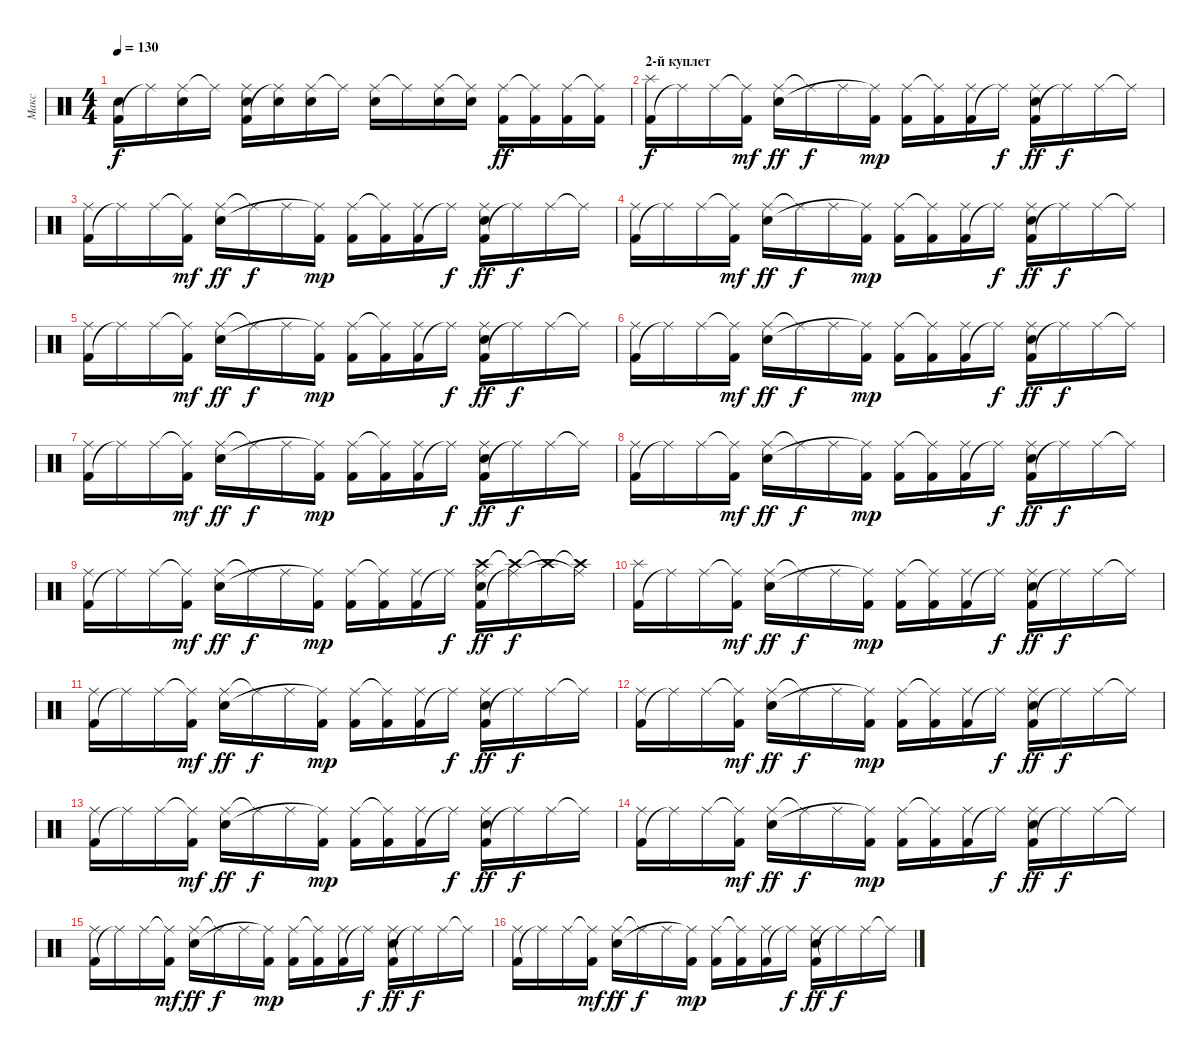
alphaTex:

\track ("Макс" "Макс") {instrument percussion}
\staff {score}
\articulation defaults
\ts (4 4)
\tempo 130
\clef neutral
\ks c
("Kick (hit) 2" "Electric Snare (hit)").16{dy f} "Ride (middle)"{t}.16 ("Ride (middle)" "Electric Snare (hit)").16 "Ride (middle)"{t}.16 ("Kick (hit) 2" "Ride (middle)" "Electric Snare (hit)").16 ("Ride (middle)"{t} "Electric Snare (hit)").16 ("Ride (middle)" "Electric Snare (hit)").16 "Ride (middle)"{t}.16 ("Ride (middle)" "Electric Snare (hit)").16 "Ride (middle)"{t}.16 ("Ride (middle)" "Electric Snare (hit)").16 ("Ride (middle)"{t} "Electric Snare (hit)").16 ("Ride (middle)" "Kick (hit) 2").16{dy ff} ("Ride (middle)"{t} "Kick (hit) 2").16 ("Ride (middle)" "Kick (hit) 2").16 ("Ride (middle)"{t} "Kick (hit) 2").16 |
\section ("" "2-й куплет")
("Kick (hit) 2" "Splash (hit)").16{dy f} "Ride (middle)"{t}.16 "Ride (middle)".16 ("Ride (middle)"{t} "Kick (hit) 2").16{dy mf} ("Ride (middle)" "Electric Snare (hit)").16{dy ff} "Ride (middle)"{t}.16{dy f} "Ride (middle)".16 ("Kick (hit) 2" "Ride (middle)"{t}).16{dy mp} ("Kick (hit) 2" "Ride (middle)").16 ("Kick (hit) 2" "Ride (middle)"{t}).16 ("Kick (hit) 2" "Ride (middle)").16 "Ride (middle)"{t}.16{dy f} ("Kick (hit) 2" "Ride (middle)" "Electric Snare (hit)").16{dy ff} "Ride (middle)"{t}.16{dy f} "Ride (middle)".16 "Ride (middle)"{t}.16 |
("Kick (hit) 2" "Ride (middle)").16 "Ride (middle)"{t}.16 "Ride (middle)".16 ("Ride (middle)"{t} "Kick (hit) 2").16{dy mf} ("Ride (middle)" "Electric Snare (hit)").16{dy ff} "Ride (middle)"{t}.16{dy f} "Ride (middle)".16 ("Kick (hit) 2" "Ride (middle)"{t}).16{dy mp} ("Kick (hit) 2" "Ride (middle)").16 ("Kick (hit) 2" "Ride (middle)"{t}).16 ("Kick (hit) 2" "Ride (middle)").16 "Ride (middle)"{t}.16{dy f} ("Kick (hit) 2" "Ride (middle)" "Electric Snare (hit)").16{dy ff} "Ride (middle)"{t}.16{dy f} "Ride (middle)".16 "Ride (middle)"{t}.16 |
("Kick (hit) 2" "Ride (middle)").16 "Ride (middle)"{t}.16 "Ride (middle)".16 ("Ride (middle)"{t} "Kick (hit) 2").16{dy mf} ("Ride (middle)" "Electric Snare (hit)").16{dy ff} "Ride (middle)"{t}.16{dy f} "Ride (middle)".16 ("Kick (hit) 2" "Ride (middle)"{t}).16{dy mp} ("Kick (hit) 2" "Ride (middle)").16 ("Kick (hit) 2" "Ride (middle)"{t}).16 ("Kick (hit) 2" "Ride (middle)").16 "Ride (middle)"{t}.16{dy f} ("Kick (hit) 2" "Ride (middle)" "Electric Snare (hit)").16{dy ff} "Ride (middle)"{t}.16{dy f} "Ride (middle)".16 "Ride (middle)"{t}.16 |
("Kick (hit) 2" "Ride (middle)").16 "Ride (middle)"{t}.16 "Ride (middle)".16 ("Ride (middle)"{t} "Kick (hit) 2").16{dy mf} ("Ride (middle)" "Electric Snare (hit)").16{dy ff} "Ride (middle)"{t}.16{dy f} "Ride (middle)".16 ("Kick (hit) 2" "Ride (middle)"{t}).16{dy mp} ("Kick (hit) 2" "Ride (middle)").16 ("Kick (hit) 2" "Ride (middle)"{t}).16 ("Kick (hit) 2" "Ride (middle)").16 "Ride (middle)"{t}.16{dy f} ("Kick (hit) 2" "Ride (middle)" "Electric Snare (hit)").16{dy ff} "Ride (middle)"{t}.16{dy f} "Ride (middle)".16 "Ride (middle)"{t}.16 |
("Kick (hit) 2" "Ride (middle)").16 "Ride (middle)"{t}.16 "Ride (middle)".16 ("Ride (middle)"{t} "Kick (hit) 2").16{dy mf} ("Ride (middle)" "Electric Snare (hit)").16{dy ff} "Ride (middle)"{t}.16{dy f} "Ride (middle)".16 ("Kick (hit) 2" "Ride (middle)"{t}).16{dy mp} ("Kick (hit) 2" "Ride (middle)").16 ("Kick (hit) 2" "Ride (middle)"{t}).16 ("Kick (hit) 2" "Ride (middle)").16 "Ride (middle)"{t}.16{dy f} ("Kick (hit) 2" "Ride (middle)" "Electric Snare (hit)").16{dy ff} "Ride (middle)"{t}.16{dy f} "Ride (middle)".16 "Ride (middle)"{t}.16 |
("Kick (hit) 2" "Ride (middle)").16 "Ride (middle)"{t}.16 "Ride (middle)".16 ("Ride (middle)"{t} "Kick (hit) 2").16{dy mf} ("Ride (middle)" "Electric Snare (hit)").16{dy ff} "Ride (middle)"{t}.16{dy f} "Ride (middle)".16 ("Kick (hit) 2" "Ride (middle)"{t}).16{dy mp} ("Kick (hit) 2" "Ride (middle)").16 ("Kick (hit) 2" "Ride (middle)"{t}).16 ("Kick (hit) 2" "Ride (middle)").16 "Ride (middle)"{t}.16{dy f} ("Kick (hit) 2" "Ride (middle)" "Electric Snare (hit)").16{dy ff} "Ride (middle)"{t}.16{dy f} "Ride (middle)".16 "Ride (middle)"{t}.16 |
("Kick (hit) 2" "Ride (middle)").16 "Ride (middle)"{t}.16 "Ride (middle)".16 ("Ride (middle)"{t} "Kick (hit) 2").16{dy mf} ("Ride (middle)" "Electric Snare (hit)").16{dy ff} "Ride (middle)"{t}.16{dy f} "Ride (middle)".16 ("Kick (hit) 2" "Ride (middle)"{t}).16{dy mp} ("Kick (hit) 2" "Ride (middle)").16 ("Kick (hit) 2" "Ride (middle)"{t}).16 ("Kick (hit) 2" "Ride (middle)").16 "Ride (middle)"{t}.16{dy f} ("Kick (hit) 2" "Ride (middle)" "Electric Snare (hit)").16{dy ff} "Ride (middle)"{t}.16{dy f} "Ride (middle)".16 "Ride (middle)"{t}.16 |
("Kick (hit) 2" "Ride (middle)").16 "Ride (middle)"{t}.16 "Ride (middle)".16 ("Ride (middle)"{t} "Kick (hit) 2").16{dy mf} ("Ride (middle)" "Electric Snare (hit)").16{dy ff} "Ride (middle)"{t}.16{dy f} "Ride (middle)".16 ("Kick (hit) 2" "Ride (middle)"{t}).16{dy mp} ("Kick (hit) 2" "Ride (middle)").16 ("Kick (hit) 2" "Ride (middle)"{t}).16 ("Kick (hit) 2" "Ride (middle)").16 "Ride (middle)"{t}.16{dy f} ("Crash high (hit)" "Kick (hit) 2" "Ride (middle)" "Electric Snare (hit)").16{dy ff} ("Crash high (hit)"{t} "Ride (middle)"{t}).16{dy f} "Crash high (hit)"{t}.16 ("Crash high (hit)"{t} "Ride (middle)"{t}).16 |
("Kick (hit) 2" "Splash (hit)").16 "Ride (middle)"{t}.16 "Ride (middle)".16 ("Ride (middle)"{t} "Kick (hit) 2").16{dy mf} ("Ride (middle)" "Electric Snare (hit)").16{dy ff} "Ride (middle)"{t}.16{dy f} "Ride (middle)".16 ("Kick (hit) 2" "Ride (middle)"{t}).16{dy mp} ("Kick (hit) 2" "Ride (middle)").16 ("Kick (hit) 2" "Ride (middle)"{t}).16 ("Kick (hit) 2" "Ride (middle)").16 "Ride (middle)"{t}.16{dy f} ("Kick (hit) 2" "Ride (middle)" "Electric Snare (hit)").16{dy ff} "Ride (middle)"{t}.16{dy f} "Ride (middle)".16 "Ride (middle)"{t}.16 |
("Kick (hit) 2" "Ride (middle)").16 "Ride (middle)"{t}.16 "Ride (middle)".16 ("Ride (middle)"{t} "Kick (hit) 2").16{dy mf} ("Ride (middle)" "Electric Snare (hit)").16{dy ff} "Ride (middle)"{t}.16{dy f} "Ride (middle)".16 ("Kick (hit) 2" "Ride (middle)"{t}).16{dy mp} ("Kick (hit) 2" "Ride (middle)").16 ("Kick (hit) 2" "Ride (middle)"{t}).16 ("Kick (hit) 2" "Ride (middle)").16 "Ride (middle)"{t}.16{dy f} ("Kick (hit) 2" "Ride (middle)" "Electric Snare (hit)").16{dy ff} "Ride (middle)"{t}.16{dy f} "Ride (middle)".16 "Ride (middle)"{t}.16 |
("Kick (hit) 2" "Ride (middle)").16 "Ride (middle)"{t}.16 "Ride (middle)".16 ("Ride (middle)"{t} "Kick (hit) 2").16{dy mf} ("Ride (middle)" "Electric Snare (hit)").16{dy ff} "Ride (middle)"{t}.16{dy f} "Ride (middle)".16 ("Kick (hit) 2" "Ride (middle)"{t}).16{dy mp} ("Kick (hit) 2" "Ride (middle)").16 ("Kick (hit) 2" "Ride (middle)"{t}).16 ("Kick (hit) 2" "Ride (middle)").16 "Ride (middle)"{t}.16{dy f} ("Kick (hit) 2" "Ride (middle)" "Electric Snare (hit)").16{dy ff} "Ride (middle)"{t}.16{dy f} "Ride (middle)".16 "Ride (middle)"{t}.16 |
("Kick (hit) 2" "Ride (middle)").16 "Ride (middle)"{t}.16 "Ride (middle)".16 ("Ride (middle)"{t} "Kick (hit) 2").16{dy mf} ("Ride (middle)" "Electric Snare (hit)").16{dy ff} "Ride (middle)"{t}.16{dy f} "Ride (middle)".16 ("Kick (hit) 2" "Ride (middle)"{t}).16{dy mp} ("Kick (hit) 2" "Ride (middle)").16 ("Kick (hit) 2" "Ride (middle)"{t}).16 ("Kick (hit) 2" "Ride (middle)").16 "Ride (middle)"{t}.16{dy f} ("Kick (hit) 2" "Ride (middle)" "Electric Snare (hit)").16{dy ff} "Ride (middle)"{t}.16{dy f} "Ride (middle)".16 "Ride (middle)"{t}.16 |
("Kick (hit) 2" "Ride (middle)").16 "Ride (middle)"{t}.16 "Ride (middle)".16 ("Ride (middle)"{t} "Kick (hit) 2").16{dy mf} ("Ride (middle)" "Electric Snare (hit)").16{dy ff} "Ride (middle)"{t}.16{dy f} "Ride (middle)".16 ("Kick (hit) 2" "Ride (middle)"{t}).16{dy mp} ("Kick (hit) 2" "Ride (middle)").16 ("Kick (hit) 2" "Ride (middle)"{t}).16 ("Kick (hit) 2" "Ride (middle)").16 "Ride (middle)"{t}.16{dy f} ("Kick (hit) 2" "Ride (middle)" "Electric Snare (hit)").16{dy ff} "Ride (middle)"{t}.16{dy f} "Ride (middle)".16 "Ride (middle)"{t}.16 |
("Kick (hit) 2" "Ride (middle)").16 "Ride (middle)"{t}.16 "Ride (middle)".16 ("Ride (middle)"{t} "Kick (hit) 2").16{dy mf} ("Ride (middle)" "Electric Snare (hit)").16{dy ff} "Ride (middle)"{t}.16{dy f} "Ride (middle)".16 ("Kick (hit) 2" "Ride (middle)"{t}).16{dy mp} ("Kick (hit) 2" "Ride (middle)").16 ("Kick (hit) 2" "Ride (middle)"{t}).16 ("Kick (hit) 2" "Ride (middle)").16 "Ride (middle)"{t}.16{dy f} ("Kick (hit) 2" "Ride (middle)" "Electric Snare (hit)").16{dy ff} "Ride (middle)"{t}.16{dy f} "Ride (middle)".16 "Ride (middle)"{t}.16 |
("Kick (hit) 2" "Ride (middle)").16 "Ride (middle)"{t}.16 "Ride (middle)".16 ("Ride (middle)"{t} "Kick (hit) 2").16{dy mf} ("Ride (middle)" "Electric Snare (hit)").16{dy ff} "Ride (middle)"{t}.16{dy f} "Ride (middle)".16 ("Kick (hit) 2" "Ride (middle)"{t}).16{dy mp} ("Kick (hit) 2" "Ride (middle)").16 ("Kick (hit) 2" "Ride (middle)"{t}).16 ("Kick (hit) 2" "Ride (middle)").16 "Ride (middle)"{t}.16{dy f} ("Kick (hit) 2" "Ride (middle)" "Electric Snare (hit)").16{dy ff} "Ride (middle)"{t}.16{dy f} "Ride (middle)".16 "Ride (middle)"{t}.16
